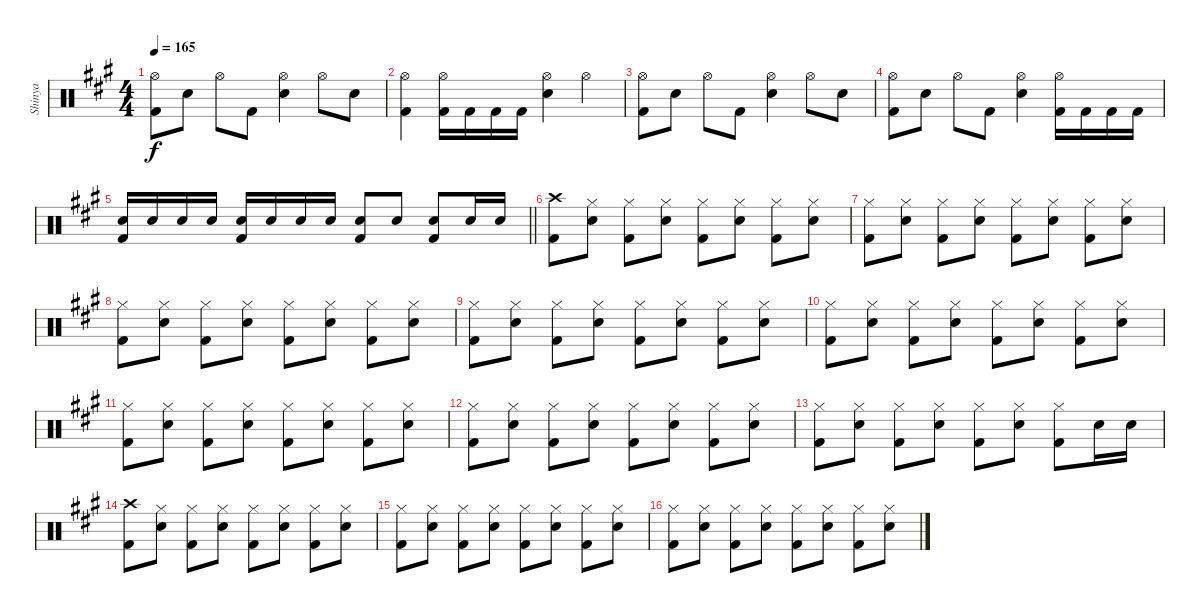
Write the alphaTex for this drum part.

\track ("Shinya" "Shinya") {instrument percussion}
\staff {score}
\articulation defaults
\ts (4 4)
\tempo 165
\clef neutral
\ks a
("Hi-Hat (open)" "Kick (hit) 2").8{dy f} "Snare (hit) 2".8 "Hi-Hat (open)".8 "Kick (hit) 2".8 ("Hi-Hat (open)" "Snare (hit) 2").4 "Hi-Hat (open)".8 "Snare (hit) 2".8 |
("Hi-Hat (open)" "Kick (hit) 2").4 ("Hi-Hat (open)" "Kick (hit) 2").16 "Kick (hit) 2".16 "Kick (hit) 2".16 "Kick (hit) 2".16 ("Hi-Hat (open)" "Snare (hit) 2").4 "Hi-Hat (open)".4 |
("Hi-Hat (open)" "Kick (hit) 2").8 "Snare (hit) 2".8 "Hi-Hat (open)".8 "Kick (hit) 2".8 ("Hi-Hat (open)" "Snare (hit) 2").4 "Hi-Hat (open)".8 "Snare (hit) 2".8 |
("Hi-Hat (open)" "Kick (hit) 2").8 "Snare (hit) 2".8 "Hi-Hat (open)".8 "Kick (hit) 2".8 ("Hi-Hat (open)" "Snare (hit) 2").4 ("Hi-Hat (open)" "Kick (hit) 2").16 "Kick (hit) 2".16 "Kick (hit) 2".16 "Kick (hit) 2".16 |
\barLineRight lightlight
("Snare (hit) 2" "Kick (hit) 2").16 "Snare (hit) 2".16 "Snare (hit) 2".16 "Snare (hit) 2".16 ("Snare (hit) 2" "Kick (hit) 2").16 "Snare (hit) 2".16 "Snare (hit) 2".16 "Snare (hit) 2".16 ("Snare (hit) 2" "Kick (hit) 2").8 "Snare (hit) 2".8 ("Snare (hit) 2" "Kick (hit) 2").8 "Snare (hit) 2".16 "Snare (hit) 2".16 |
("Crash high (hit)" "Kick (hit) 2").8 ("Hi-Hat (closed)" "Snare (hit) 2").8 ("Hi-Hat (closed)" "Kick (hit) 2").8 ("Hi-Hat (closed)" "Snare (hit) 2").8 ("Hi-Hat (closed)" "Kick (hit) 2").8 ("Hi-Hat (closed)" "Snare (hit) 2").8 ("Hi-Hat (closed)" "Kick (hit) 2").8 ("Hi-Hat (closed)" "Snare (hit) 2").8 |
("Hi-Hat (closed)" "Kick (hit) 2").8 ("Hi-Hat (closed)" "Snare (hit) 2").8 ("Hi-Hat (closed)" "Kick (hit) 2").8 ("Hi-Hat (closed)" "Snare (hit) 2").8 ("Hi-Hat (closed)" "Kick (hit) 2").8 ("Hi-Hat (closed)" "Snare (hit) 2").8 ("Hi-Hat (closed)" "Kick (hit) 2").8 ("Hi-Hat (closed)" "Snare (hit) 2").8 |
("Hi-Hat (closed)" "Kick (hit) 2").8 ("Hi-Hat (closed)" "Snare (hit) 2").8 ("Hi-Hat (closed)" "Kick (hit) 2").8 ("Hi-Hat (closed)" "Snare (hit) 2").8 ("Hi-Hat (closed)" "Kick (hit) 2").8 ("Hi-Hat (closed)" "Snare (hit) 2").8 ("Hi-Hat (closed)" "Kick (hit) 2").8 ("Hi-Hat (closed)" "Snare (hit) 2").8 |
("Hi-Hat (closed)" "Kick (hit) 2").8 ("Hi-Hat (closed)" "Snare (hit) 2").8 ("Hi-Hat (closed)" "Kick (hit) 2").8 ("Hi-Hat (closed)" "Snare (hit) 2").8 ("Hi-Hat (closed)" "Kick (hit) 2").8 ("Hi-Hat (closed)" "Snare (hit) 2").8 ("Hi-Hat (closed)" "Kick (hit) 2").8 ("Hi-Hat (closed)" "Snare (hit) 2").8 |
("Hi-Hat (closed)" "Kick (hit) 2").8 ("Hi-Hat (closed)" "Snare (hit) 2").8 ("Hi-Hat (closed)" "Kick (hit) 2").8 ("Hi-Hat (closed)" "Snare (hit) 2").8 ("Hi-Hat (closed)" "Kick (hit) 2").8 ("Hi-Hat (closed)" "Snare (hit) 2").8 ("Hi-Hat (closed)" "Kick (hit) 2").8 ("Hi-Hat (closed)" "Snare (hit) 2").8 |
("Hi-Hat (closed)" "Kick (hit) 2").8 ("Hi-Hat (closed)" "Snare (hit) 2").8 ("Hi-Hat (closed)" "Kick (hit) 2").8 ("Hi-Hat (closed)" "Snare (hit) 2").8 ("Hi-Hat (closed)" "Kick (hit) 2").8 ("Hi-Hat (closed)" "Snare (hit) 2").8 ("Hi-Hat (closed)" "Kick (hit) 2").8 ("Hi-Hat (closed)" "Snare (hit) 2").8 |
("Hi-Hat (closed)" "Kick (hit) 2").8 ("Hi-Hat (closed)" "Snare (hit) 2").8 ("Hi-Hat (closed)" "Kick (hit) 2").8 ("Hi-Hat (closed)" "Snare (hit) 2").8 ("Hi-Hat (closed)" "Kick (hit) 2").8 ("Hi-Hat (closed)" "Snare (hit) 2").8 ("Hi-Hat (closed)" "Kick (hit) 2").8 ("Hi-Hat (closed)" "Snare (hit) 2").8 |
("Hi-Hat (closed)" "Kick (hit) 2").8 ("Hi-Hat (closed)" "Snare (hit) 2").8 ("Hi-Hat (closed)" "Kick (hit) 2").8 ("Hi-Hat (closed)" "Snare (hit) 2").8 ("Hi-Hat (closed)" "Kick (hit) 2").8 ("Hi-Hat (closed)" "Snare (hit) 2").8 ("Hi-Hat (closed)" "Kick (hit) 2").8 "Snare (hit) 2".16 "Snare (hit) 2".16 |
("Crash high (hit)" "Kick (hit) 2").8 ("Hi-Hat (closed)" "Snare (hit) 2").8 ("Hi-Hat (closed)" "Kick (hit) 2").8 ("Hi-Hat (closed)" "Snare (hit) 2").8 ("Hi-Hat (closed)" "Kick (hit) 2").8 ("Hi-Hat (closed)" "Snare (hit) 2").8 ("Hi-Hat (closed)" "Kick (hit) 2").8 ("Hi-Hat (closed)" "Snare (hit) 2").8 |
("Hi-Hat (closed)" "Kick (hit) 2").8 ("Hi-Hat (closed)" "Snare (hit) 2").8 ("Hi-Hat (closed)" "Kick (hit) 2").8 ("Hi-Hat (closed)" "Snare (hit) 2").8 ("Hi-Hat (closed)" "Kick (hit) 2").8 ("Hi-Hat (closed)" "Snare (hit) 2").8 ("Hi-Hat (closed)" "Kick (hit) 2").8 ("Hi-Hat (closed)" "Snare (hit) 2").8 |
("Hi-Hat (closed)" "Kick (hit) 2").8 ("Hi-Hat (closed)" "Snare (hit) 2").8 ("Hi-Hat (closed)" "Kick (hit) 2").8 ("Hi-Hat (closed)" "Snare (hit) 2").8 ("Hi-Hat (closed)" "Kick (hit) 2").8 ("Hi-Hat (closed)" "Snare (hit) 2").8 ("Hi-Hat (closed)" "Kick (hit) 2").8 ("Hi-Hat (closed)" "Snare (hit) 2").8
